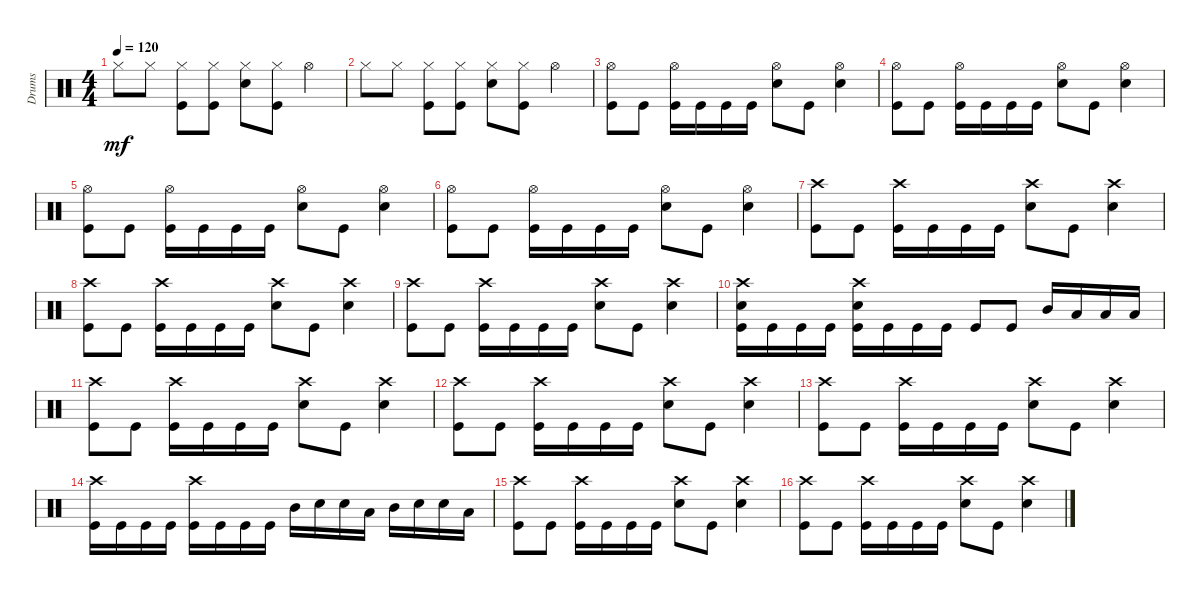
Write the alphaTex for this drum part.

\track ("Drums" "Drums") {instrument percussion}
\staff {score}
\articulation defaults
\ts (4 4)
\tempo 120
\clef neutral
\ks c "Hi-Hat (closed)".8{dy mf} "Hi-Hat (closed)".8
("Hi-Hat (closed)" "Kick (hit)").8 ("Kick (hit)" "Hi-Hat (closed)").8 ("Snare (hit) 2" "Hi-Hat (closed)").8 ("Kick (hit)" "Hi-Hat (closed)").8 "Hi-Hat (open)".4 |
"Hi-Hat (closed)".8 "Hi-Hat (closed)".8 ("Hi-Hat (closed)" "Kick (hit)").8 ("Kick (hit)" "Hi-Hat (closed)").8 ("Snare (hit) 2" "Hi-Hat (closed)").8 ("Kick (hit)" "Hi-Hat (closed)").8 "Hi-Hat (open)".4 |
("Kick (hit)" "Hi-Hat (open)").8 "Kick (hit)".8 ("Kick (hit)" "Hi-Hat (open)").16 "Kick (hit)".16 "Kick (hit)".16 "Kick (hit)".16 ("Snare (hit) 2" "Hi-Hat (open)").8 "Kick (hit)".8 ("Snare (hit) 2" "Hi-Hat (open)").4 |
("Kick (hit)" "Hi-Hat (open)").8 "Kick (hit)".8 ("Kick (hit)" "Hi-Hat (open)").16 "Kick (hit)".16 "Kick (hit)".16 "Kick (hit)".16 ("Snare (hit) 2" "Hi-Hat (open)").8 "Kick (hit)".8 ("Snare (hit) 2" "Hi-Hat (open)").4 |
("Kick (hit)" "Hi-Hat (open)").8 "Kick (hit)".8 ("Kick (hit)" "Hi-Hat (open)").16 "Kick (hit)".16 "Kick (hit)".16 "Kick (hit)".16 ("Snare (hit) 2" "Hi-Hat (open)").8 "Kick (hit)".8 ("Snare (hit) 2" "Hi-Hat (open)").4 |
("Kick (hit)" "Hi-Hat (open)").8 "Kick (hit)".8 ("Kick (hit)" "Hi-Hat (open)").16 "Kick (hit)".16 "Kick (hit)".16 "Kick (hit)".16 ("Snare (hit) 2" "Hi-Hat (open)").8 "Kick (hit)".8 ("Snare (hit) 2" "Hi-Hat (open)").4 |
("Crash high (hit)" "Kick (hit)").8 "Kick (hit)".8 ("Kick (hit)" "Crash high (hit)").16 "Kick (hit)".16 "Kick (hit)".16 "Kick (hit)".16 ("Snare (hit) 2" "Crash high (hit)").8 "Kick (hit)".8 ("Crash high (hit)" "Snare (hit) 2").4 |
("Crash high (hit)" "Kick (hit)").8 "Kick (hit)".8 ("Kick (hit)" "Crash high (hit)").16 "Kick (hit)".16 "Kick (hit)".16 "Kick (hit)".16 ("Snare (hit) 2" "Crash high (hit)").8 "Kick (hit)".8 ("Crash high (hit)" "Snare (hit) 2").4 |
("Crash high (hit)" "Kick (hit)").8 "Kick (hit)".8 ("Kick (hit)" "Crash high (hit)").16 "Kick (hit)".16 "Kick (hit)".16 "Kick (hit)".16 ("Snare (hit) 2" "Crash high (hit)").8 "Kick (hit)".8 ("Crash high (hit)" "Snare (hit) 2").4 |
("Kick (hit)" "Crash high (hit)" "Snare (hit) 2").16 "Kick (hit)".16 "Kick (hit)".16 "Kick (hit)".16 ("Kick (hit)" "Crash high (hit)" "Snare (hit) 2").16 "Kick (hit)".16 "Kick (hit)".16 "Kick (hit)".16 "Kick (hit)".8 "Kick (hit)".8 "Mid Tom (hit)".16 "Low Tom (hit)".16 "Low Floor Tom (hit)".16 "Low Floor Tom (hit)".16 |
("Crash high (hit)" "Kick (hit)").8 "Kick (hit)".8 ("Kick (hit)" "Crash high (hit)").16 "Kick (hit)".16 "Kick (hit)".16 "Kick (hit)".16 ("Snare (hit) 2" "Crash high (hit)").8 "Kick (hit)".8 ("Crash high (hit)" "Snare (hit) 2").4 |
("Crash high (hit)" "Kick (hit)").8 "Kick (hit)".8 ("Kick (hit)" "Crash high (hit)").16 "Kick (hit)".16 "Kick (hit)".16 "Kick (hit)".16 ("Snare (hit) 2" "Crash high (hit)").8 "Kick (hit)".8 ("Crash high (hit)" "Snare (hit) 2").4 |
("Crash high (hit)" "Kick (hit)").8 "Kick (hit)".8 ("Kick (hit)" "Crash high (hit)").16 "Kick (hit)".16 "Kick (hit)".16 "Kick (hit)".16 ("Snare (hit) 2" "Crash high (hit)").8 "Kick (hit)".8 ("Crash high (hit)" "Snare (hit) 2").4 |
("Kick (hit)" "Crash high (hit)").16 "Kick (hit)".16 "Kick (hit)".16 "Kick (hit)".16 ("Kick (hit)" "Crash high (hit)").16 "Kick (hit)".16 "Kick (hit)".16 "Kick (hit)".16 "Mid Tom (hit)".16 "Snare (hit) 2".16 "Snare (hit) 2".16 "Low Floor Tom (hit)".16 "Mid Tom (hit)".16 "Snare (hit) 2".16 "Snare (hit) 2".16 "Low Floor Tom (hit)".16 |
("Crash high (hit)" "Kick (hit)").8 "Kick (hit)".8 ("Kick (hit)" "Crash high (hit)").16 "Kick (hit)".16 "Kick (hit)".16 "Kick (hit)".16 ("Snare (hit) 2" "Crash high (hit)").8 "Kick (hit)".8 ("Crash high (hit)" "Snare (hit) 2").4 |
("Crash high (hit)" "Kick (hit)").8 "Kick (hit)".8 ("Kick (hit)" "Crash high (hit)").16 "Kick (hit)".16 "Kick (hit)".16 "Kick (hit)".16 ("Snare (hit) 2" "Crash high (hit)").8 "Kick (hit)".8 ("Crash high (hit)" "Snare (hit) 2").4
